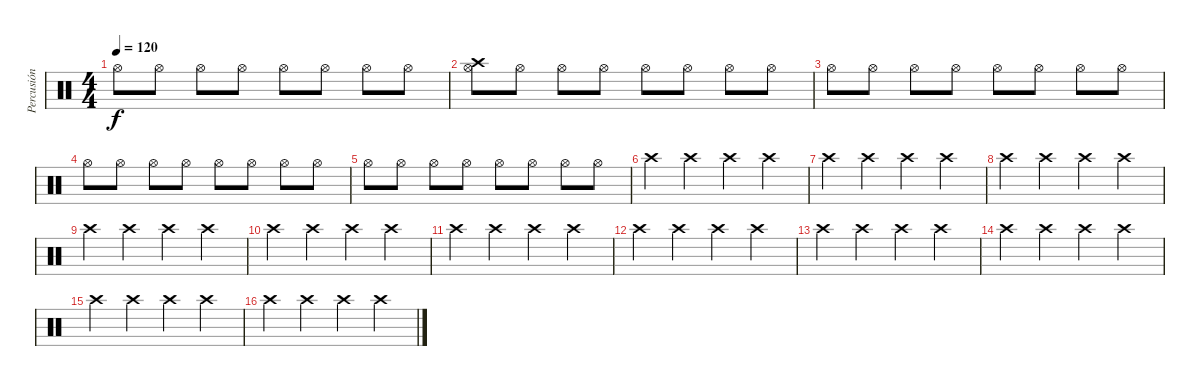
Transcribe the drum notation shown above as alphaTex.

\track ("Percusión" "Percusión") {instrument percussion}
\staff {score}
\articulation defaults
\ts (4 4)
\tempo 120
\clef neutral
\ks c "Hi-Hat (open)".8{dy f} "Hi-Hat (open)".8 "Hi-Hat (open)".8 "Hi-Hat (open)".8 "Hi-Hat (open)".8 "Hi-Hat (open)".8 "Hi-Hat (open)".8 "Hi-Hat (open)".8
|
("Hi-Hat (open)" "Crash high (hit)").8 "Hi-Hat (open)".8 "Hi-Hat (open)".8 "Hi-Hat (open)".8 "Hi-Hat (open)".8 "Hi-Hat (open)".8 "Hi-Hat (open)".8 "Hi-Hat (open)".8 |
"Hi-Hat (open)".8 "Hi-Hat (open)".8 "Hi-Hat (open)".8 "Hi-Hat (open)".8 "Hi-Hat (open)".8 "Hi-Hat (open)".8 "Hi-Hat (open)".8 "Hi-Hat (open)".8 |
"Hi-Hat (open)".8 "Hi-Hat (open)".8 "Hi-Hat (open)".8 "Hi-Hat (open)".8 "Hi-Hat (open)".8 "Hi-Hat (open)".8 "Hi-Hat (open)".8 "Hi-Hat (open)".8 |
"Hi-Hat (open)".8 "Hi-Hat (open)".8 "Hi-Hat (open)".8 "Hi-Hat (open)".8 "Hi-Hat (open)".8 "Hi-Hat (open)".8 "Hi-Hat (open)".8 "Hi-Hat (open)".8 |
"Crash high (hit)".4 "Crash high (hit)".4 "Crash high (hit)".4 "Crash high (hit)".4 |
"Crash high (hit)".4 "Crash high (hit)".4 "Crash high (hit)".4 "Crash high (hit)".4 |
"Crash high (hit)".4 "Crash high (hit)".4 "Crash high (hit)".4 "Crash high (hit)".4 |
"Crash high (hit)".4 "Crash high (hit)".4 "Crash high (hit)".4 "Crash high (hit)".4 |
"Crash high (hit)".4 "Crash high (hit)".4 "Crash high (hit)".4 "Crash high (hit)".4 |
"Crash high (hit)".4 "Crash high (hit)".4 "Crash high (hit)".4 "Crash high (hit)".4 |
"Crash high (hit)".4 "Crash high (hit)".4 "Crash high (hit)".4 "Crash high (hit)".4 |
"Crash high (hit)".4 "Crash high (hit)".4 "Crash high (hit)".4 "Crash high (hit)".4 |
"Crash high (hit)".4 "Crash high (hit)".4 "Crash high (hit)".4 "Crash high (hit)".4 |
"Crash high (hit)".4 "Crash high (hit)".4 "Crash high (hit)".4 "Crash high (hit)".4 |
"Crash high (hit)".4 "Crash high (hit)".4 "Crash high (hit)".4 "Crash high (hit)".4
